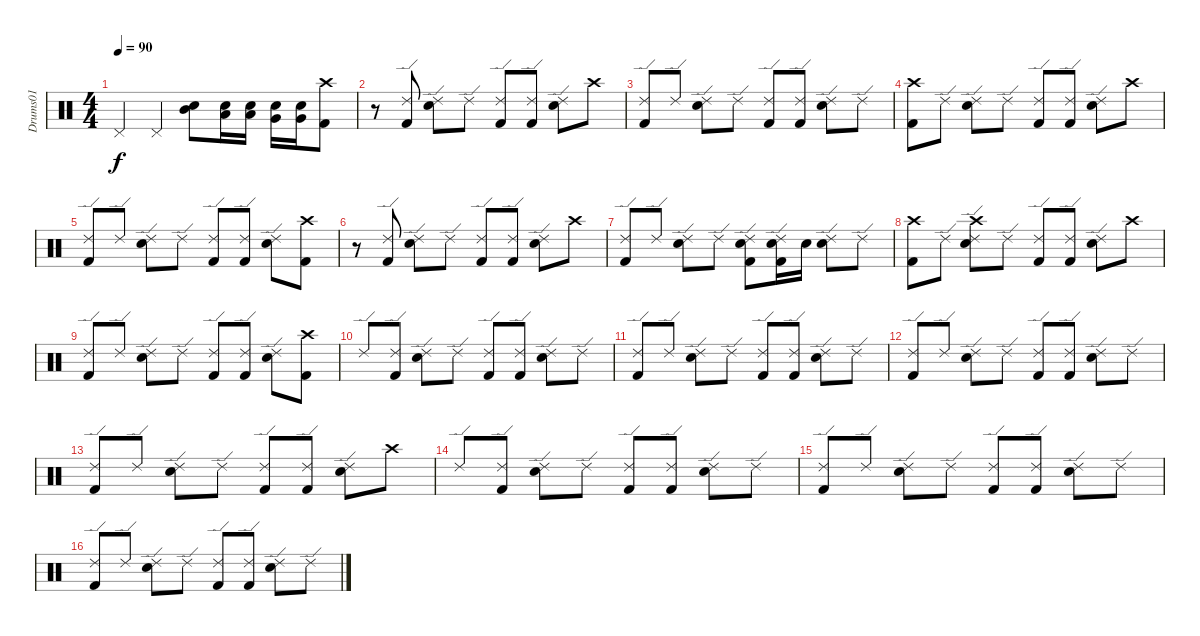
\track ("Drums01" "Drums01") {instrument percussion}
\staff {score}
\articulation defaults
\ts (4 4)
\tempo 90
\clef neutral
\ks c "Pedal Hi-Hat (hit)".4{dy f} "Pedal Hi-Hat (hit)".4
("Mid Tom (hit)" "Snare (hit) 2").8 ("Low Tom (hit)" "Snare (hit) 2").16 ("Low Tom (hit)" "Snare (hit) 2").16 ("Very Low Tom (hit)" "Snare (hit) 2").16 ("Very Low Tom (hit)" "Snare (hit) 2").16 ("Crash high (hit)" "Kick (hit) 2").8 |
r.8 ("Ride (edge) 2" "Kick (hit) 2").8 ("Ride (edge) 2" "Snare (hit) 2").8 "Ride (edge) 2".8 ("Ride (edge) 2" "Kick (hit) 2").8 ("Ride (edge) 2" "Kick (hit) 2").8 ("Ride (edge) 2" "Snare (hit) 2").8 "Crash high (hit)".8 |
("Ride (edge) 2" "Kick (hit) 2").8 "Ride (edge) 2".8 ("Ride (edge) 2" "Snare (hit) 2").8 "Ride (edge) 2".8 ("Ride (edge) 2" "Kick (hit) 2").8 ("Ride (edge) 2" "Kick (hit) 2").8 ("Ride (edge) 2" "Snare (hit) 2").8 "Ride (edge) 2".8 |
("Crash high (hit)" "Kick (hit) 2").8 "Ride (edge) 2".8 ("Ride (edge) 2" "Snare (hit) 2").8 "Ride (edge) 2".8 ("Ride (edge) 2" "Kick (hit) 2").8 ("Ride (edge) 2" "Kick (hit) 2").8 ("Ride (edge) 2" "Snare (hit) 2").8 "Crash high (hit)".8 |
("Ride (edge) 2" "Kick (hit) 2").8 "Ride (edge) 2".8 ("Ride (edge) 2" "Snare (hit) 2").8 "Ride (edge) 2".8 ("Ride (edge) 2" "Kick (hit) 2").8 ("Ride (edge) 2" "Kick (hit) 2").8 ("Ride (edge) 2" "Snare (hit) 2").8 ("Crash high (hit)" "Kick (hit) 2").8 |
r.8 ("Ride (edge) 2" "Kick (hit) 2").8 ("Ride (edge) 2" "Snare (hit) 2").8 "Ride (edge) 2".8 ("Ride (edge) 2" "Kick (hit) 2").8 ("Ride (edge) 2" "Kick (hit) 2").8 ("Ride (edge) 2" "Snare (hit) 2").8 "Crash high (hit)".8 |
("Ride (edge) 2" "Kick (hit) 2").8 "Ride (edge) 2".8 ("Ride (edge) 2" "Snare (hit) 2").8 "Ride (edge) 2".8 ("Ride (edge) 2" "Snare (hit) 2" "Kick (hit) 2").8 ("Ride (edge) 2" "Snare (hit) 2" "Kick (hit) 2").16 "Snare (hit) 2".16 ("Ride (edge) 2" "Snare (hit) 2").8 "Ride (edge) 2".8 |
("Crash high (hit)" "Kick (hit) 2").8 "Ride (edge) 2".8 ("Crash high (hit)" "Ride (edge) 2" "Snare (hit) 2").8 "Ride (edge) 2".8 ("Ride (edge) 2" "Kick (hit) 2").8 ("Ride (edge) 2" "Kick (hit) 2").8 ("Ride (edge) 2" "Snare (hit) 2").8 "Crash high (hit)".8 |
("Ride (edge) 2" "Kick (hit) 2").8 "Ride (edge) 2".8 ("Ride (edge) 2" "Snare (hit) 2").8 "Ride (edge) 2".8 ("Ride (edge) 2" "Kick (hit) 2").8 ("Ride (edge) 2" "Kick (hit) 2").8 ("Ride (edge) 2" "Snare (hit) 2").8 ("Crash high (hit)" "Kick (hit) 2").8 |
"Ride (edge) 2".8 ("Ride (edge) 2" "Kick (hit) 2").8 ("Ride (edge) 2" "Snare (hit) 2").8 "Ride (edge) 2".8 ("Ride (edge) 2" "Kick (hit) 2").8 ("Ride (edge) 2" "Kick (hit) 2").8 ("Ride (edge) 2" "Snare (hit) 2").8 "Ride (edge) 2".8 |
("Ride (edge) 2" "Kick (hit) 2").8 "Ride (edge) 2".8 ("Ride (edge) 2" "Snare (hit) 2").8 "Ride (edge) 2".8 ("Ride (edge) 2" "Kick (hit) 2").8 ("Ride (edge) 2" "Kick (hit) 2").8 ("Ride (edge) 2" "Snare (hit) 2").8 "Ride (edge) 2".8 |
("Ride (edge) 2" "Kick (hit) 2").8 "Ride (edge) 2".8 ("Ride (edge) 2" "Snare (hit) 2").8 "Ride (edge) 2".8 ("Ride (edge) 2" "Kick (hit) 2").8 ("Ride (edge) 2" "Kick (hit) 2").8 ("Ride (edge) 2" "Snare (hit) 2").8 "Ride (edge) 2".8 |
("Ride (edge) 2" "Kick (hit) 2").8 "Ride (edge) 2".8 ("Ride (edge) 2" "Snare (hit) 2").8 "Ride (edge) 2".8 ("Ride (edge) 2" "Kick (hit) 2").8 ("Ride (edge) 2" "Kick (hit) 2").8 ("Ride (edge) 2" "Snare (hit) 2").8 "Crash high (hit)".8 |
"Ride (edge) 2".8 ("Ride (edge) 2" "Kick (hit) 2").8 ("Ride (edge) 2" "Snare (hit) 2").8 "Ride (edge) 2".8 ("Ride (edge) 2" "Kick (hit) 2").8 ("Ride (edge) 2" "Kick (hit) 2").8 ("Ride (edge) 2" "Snare (hit) 2").8 "Ride (edge) 2".8 |
("Ride (edge) 2" "Kick (hit) 2").8 "Ride (edge) 2".8 ("Ride (edge) 2" "Snare (hit) 2").8 "Ride (edge) 2".8 ("Ride (edge) 2" "Kick (hit) 2").8 ("Ride (edge) 2" "Kick (hit) 2").8 ("Ride (edge) 2" "Snare (hit) 2").8 "Ride (edge) 2".8 |
("Ride (edge) 2" "Kick (hit) 2").8 "Ride (edge) 2".8 ("Ride (edge) 2" "Snare (hit) 2").8 "Ride (edge) 2".8 ("Ride (edge) 2" "Kick (hit) 2").8 ("Ride (edge) 2" "Kick (hit) 2").8 ("Ride (edge) 2" "Snare (hit) 2").8 "Ride (edge) 2".8
